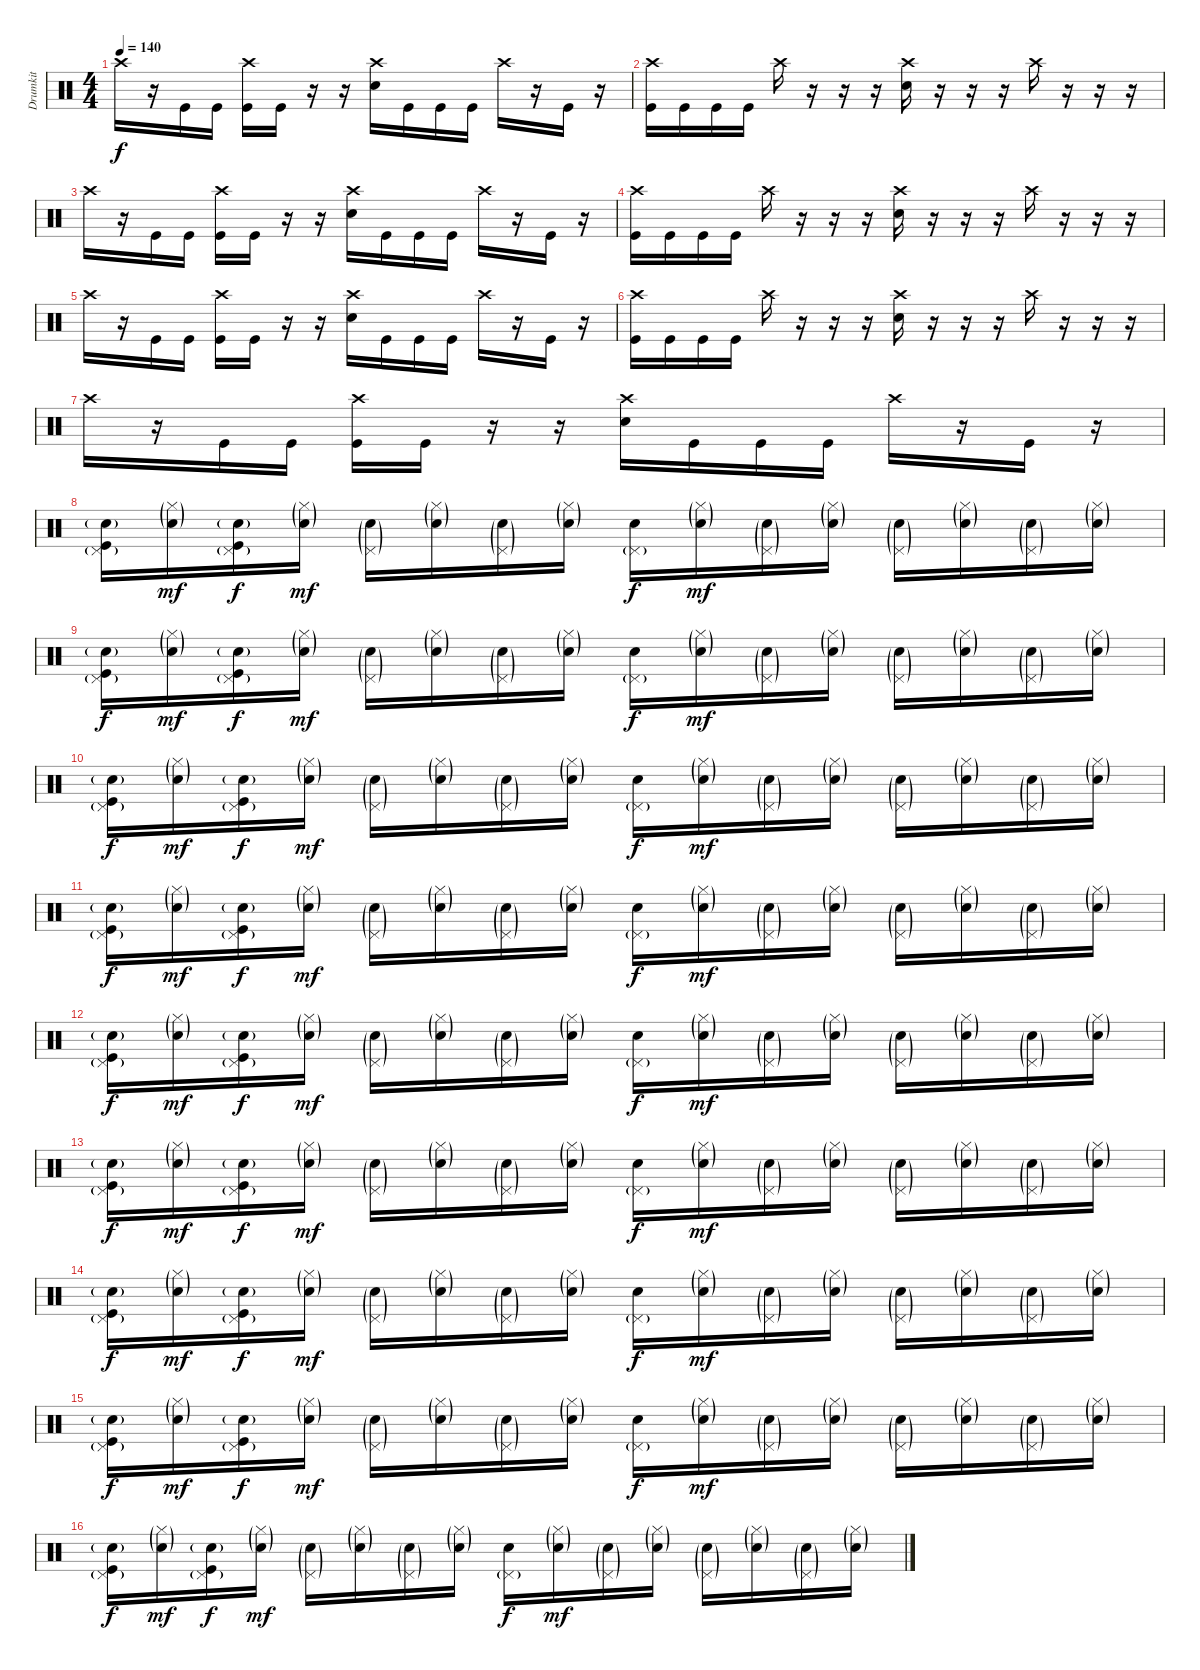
\track ("Drumkit" "Drumkit") {instrument percussion}
\staff {score}
\articulation defaults
\ts (4 4)
\tempo 140
\clef neutral
\ks c "Crash high (hit)".16{dy f}
r.16 "Kick (hit)".16 "Kick (hit)".16 ("Crash high (hit)" "Kick (hit)").16 "Kick (hit)".16 r.16 r.16 ("Crash high (hit)" "Snare (hit) 2").16 "Kick (hit)".16 "Kick (hit)".16 "Kick (hit)".16 "Crash high (hit)".16 r.16 "Kick (hit)".16 r.16 |
("Crash high (hit)" "Kick (hit)").16 "Kick (hit)".16 "Kick (hit)".16 "Kick (hit)".16 "Crash high (hit)".16 r.16 r.16 r.16 ("Crash high (hit)" "Snare (hit) 2").16 r.16 r.16 r.16 "Crash high (hit)".16 r.16 r.16 r.16 |
"Crash high (hit)".16 r.16 "Kick (hit)".16 "Kick (hit)".16 ("Crash high (hit)" "Kick (hit)").16 "Kick (hit)".16 r.16 r.16 ("Crash high (hit)" "Snare (hit) 2").16 "Kick (hit)".16 "Kick (hit)".16 "Kick (hit)".16 "Crash high (hit)".16 r.16 "Kick (hit)".16 r.16 |
("Crash high (hit)" "Kick (hit)").16 "Kick (hit)".16 "Kick (hit)".16 "Kick (hit)".16 "Crash high (hit)".16 r.16 r.16 r.16 ("Crash high (hit)" "Snare (hit) 2").16 r.16 r.16 r.16 "Crash high (hit)".16 r.16 r.16 r.16 |
"Crash high (hit)".16 r.16 "Kick (hit)".16 "Kick (hit)".16 ("Crash high (hit)" "Kick (hit)").16 "Kick (hit)".16 r.16 r.16 ("Crash high (hit)" "Snare (hit) 2").16 "Kick (hit)".16 "Kick (hit)".16 "Kick (hit)".16 "Crash high (hit)".16 r.16 "Kick (hit)".16 r.16 |
("Crash high (hit)" "Kick (hit)").16 "Kick (hit)".16 "Kick (hit)".16 "Kick (hit)".16 "Crash high (hit)".16 r.16 r.16 r.16 ("Crash high (hit)" "Snare (hit) 2").16 r.16 r.16 r.16 "Crash high (hit)".16 r.16 r.16 r.16 |
"Crash high (hit)".16 r.16 "Kick (hit)".16 "Kick (hit)".16 ("Crash high (hit)" "Kick (hit)").16 "Kick (hit)".16 r.16 r.16 ("Crash high (hit)" "Snare (hit) 2").16 "Kick (hit)".16 "Kick (hit)".16 "Kick (hit)".16 "Crash high (hit)".16 r.16 "Kick (hit)".16 r.16 |
("Pedal Hi-Hat (hit)"{g} "Snare (hit) 2"{g} "Kick (hit)").16 ("Hi-Hat (closed)"{g} "Snare (hit) 2"{g}).16{dy mf} ("Pedal Hi-Hat (hit)"{g} "Snare (hit) 2"{g} "Kick (hit)").16{dy f} ("Hi-Hat (closed)"{g} "Snare (hit) 2"{g}).16{dy mf} ("Pedal Hi-Hat (hit)"{g} "Snare (hit) 2"{g}).16 ("Hi-Hat (closed)"{g} "Snare (hit) 2"{g}).16 ("Pedal Hi-Hat (hit)"{g} "Snare (hit) 2"{g}).16 ("Hi-Hat (closed)"{g} "Snare (hit) 2"{g}).16 ("Pedal Hi-Hat (hit)"{g} "Snare (hit) 2").16{dy f} ("Hi-Hat (closed)"{g} "Snare (hit) 2"{g}).16{dy mf} ("Pedal Hi-Hat (hit)"{g} "Snare (hit) 2"{g}).16 ("Hi-Hat (closed)"{g} "Snare (hit) 2"{g}).16 ("Pedal Hi-Hat (hit)"{g} "Snare (hit) 2"{g}).16 ("Hi-Hat (closed)"{g} "Snare (hit) 2"{g}).16 ("Pedal Hi-Hat (hit)"{g} "Snare (hit) 2"{g}).16 ("Hi-Hat (closed)"{g} "Snare (hit) 2"{g}).16 |
("Pedal Hi-Hat (hit)"{g} "Snare (hit) 2"{g} "Kick (hit)").16{dy f} ("Hi-Hat (closed)"{g} "Snare (hit) 2"{g}).16{dy mf} ("Pedal Hi-Hat (hit)"{g} "Snare (hit) 2"{g} "Kick (hit)").16{dy f} ("Hi-Hat (closed)"{g} "Snare (hit) 2"{g}).16{dy mf} ("Pedal Hi-Hat (hit)"{g} "Snare (hit) 2"{g}).16 ("Hi-Hat (closed)"{g} "Snare (hit) 2"{g}).16 ("Pedal Hi-Hat (hit)"{g} "Snare (hit) 2"{g}).16 ("Hi-Hat (closed)"{g} "Snare (hit) 2"{g}).16 ("Pedal Hi-Hat (hit)"{g} "Snare (hit) 2").16{dy f} ("Hi-Hat (closed)"{g} "Snare (hit) 2"{g}).16{dy mf} ("Pedal Hi-Hat (hit)"{g} "Snare (hit) 2"{g}).16 ("Hi-Hat (closed)"{g} "Snare (hit) 2"{g}).16 ("Pedal Hi-Hat (hit)"{g} "Snare (hit) 2"{g}).16 ("Hi-Hat (closed)"{g} "Snare (hit) 2"{g}).16 ("Pedal Hi-Hat (hit)"{g} "Snare (hit) 2"{g}).16 ("Hi-Hat (closed)"{g} "Snare (hit) 2"{g}).16 |
("Pedal Hi-Hat (hit)"{g} "Snare (hit) 2"{g} "Kick (hit)").16{dy f} ("Hi-Hat (closed)"{g} "Snare (hit) 2"{g}).16{dy mf} ("Pedal Hi-Hat (hit)"{g} "Snare (hit) 2"{g} "Kick (hit)").16{dy f} ("Hi-Hat (closed)"{g} "Snare (hit) 2"{g}).16{dy mf} ("Pedal Hi-Hat (hit)"{g} "Snare (hit) 2"{g}).16 ("Hi-Hat (closed)"{g} "Snare (hit) 2"{g}).16 ("Pedal Hi-Hat (hit)"{g} "Snare (hit) 2"{g}).16 ("Hi-Hat (closed)"{g} "Snare (hit) 2"{g}).16 ("Pedal Hi-Hat (hit)"{g} "Snare (hit) 2").16{dy f} ("Hi-Hat (closed)"{g} "Snare (hit) 2"{g}).16{dy mf} ("Pedal Hi-Hat (hit)"{g} "Snare (hit) 2"{g}).16 ("Hi-Hat (closed)"{g} "Snare (hit) 2"{g}).16 ("Pedal Hi-Hat (hit)"{g} "Snare (hit) 2"{g}).16 ("Hi-Hat (closed)"{g} "Snare (hit) 2"{g}).16 ("Pedal Hi-Hat (hit)"{g} "Snare (hit) 2"{g}).16 ("Hi-Hat (closed)"{g} "Snare (hit) 2"{g}).16 |
("Pedal Hi-Hat (hit)"{g} "Snare (hit) 2"{g} "Kick (hit)").16{dy f} ("Hi-Hat (closed)"{g} "Snare (hit) 2"{g}).16{dy mf} ("Pedal Hi-Hat (hit)"{g} "Snare (hit) 2"{g} "Kick (hit)").16{dy f} ("Hi-Hat (closed)"{g} "Snare (hit) 2"{g}).16{dy mf} ("Pedal Hi-Hat (hit)"{g} "Snare (hit) 2"{g}).16 ("Hi-Hat (closed)"{g} "Snare (hit) 2"{g}).16 ("Pedal Hi-Hat (hit)"{g} "Snare (hit) 2"{g}).16 ("Hi-Hat (closed)"{g} "Snare (hit) 2"{g}).16 ("Pedal Hi-Hat (hit)"{g} "Snare (hit) 2").16{dy f} ("Hi-Hat (closed)"{g} "Snare (hit) 2"{g}).16{dy mf} ("Pedal Hi-Hat (hit)"{g} "Snare (hit) 2"{g}).16 ("Hi-Hat (closed)"{g} "Snare (hit) 2"{g}).16 ("Pedal Hi-Hat (hit)"{g} "Snare (hit) 2"{g}).16 ("Hi-Hat (closed)"{g} "Snare (hit) 2"{g}).16 ("Pedal Hi-Hat (hit)"{g} "Snare (hit) 2"{g}).16 ("Hi-Hat (closed)"{g} "Snare (hit) 2"{g}).16 |
("Pedal Hi-Hat (hit)"{g} "Snare (hit) 2"{g} "Kick (hit)").16{dy f} ("Hi-Hat (closed)"{g} "Snare (hit) 2"{g}).16{dy mf} ("Pedal Hi-Hat (hit)"{g} "Snare (hit) 2"{g} "Kick (hit)").16{dy f} ("Hi-Hat (closed)"{g} "Snare (hit) 2"{g}).16{dy mf} ("Pedal Hi-Hat (hit)"{g} "Snare (hit) 2"{g}).16 ("Hi-Hat (closed)"{g} "Snare (hit) 2"{g}).16 ("Pedal Hi-Hat (hit)"{g} "Snare (hit) 2"{g}).16 ("Hi-Hat (closed)"{g} "Snare (hit) 2"{g}).16 ("Pedal Hi-Hat (hit)"{g} "Snare (hit) 2").16{dy f} ("Hi-Hat (closed)"{g} "Snare (hit) 2"{g}).16{dy mf} ("Pedal Hi-Hat (hit)"{g} "Snare (hit) 2"{g}).16 ("Hi-Hat (closed)"{g} "Snare (hit) 2"{g}).16 ("Pedal Hi-Hat (hit)"{g} "Snare (hit) 2"{g}).16 ("Hi-Hat (closed)"{g} "Snare (hit) 2"{g}).16 ("Pedal Hi-Hat (hit)"{g} "Snare (hit) 2"{g}).16 ("Hi-Hat (closed)"{g} "Snare (hit) 2"{g}).16 |
("Pedal Hi-Hat (hit)"{g} "Snare (hit) 2"{g} "Kick (hit)").16{dy f} ("Hi-Hat (closed)"{g} "Snare (hit) 2"{g}).16{dy mf} ("Pedal Hi-Hat (hit)"{g} "Snare (hit) 2"{g} "Kick (hit)").16{dy f} ("Hi-Hat (closed)"{g} "Snare (hit) 2"{g}).16{dy mf} ("Pedal Hi-Hat (hit)"{g} "Snare (hit) 2"{g}).16 ("Hi-Hat (closed)"{g} "Snare (hit) 2"{g}).16 ("Pedal Hi-Hat (hit)"{g} "Snare (hit) 2"{g}).16 ("Hi-Hat (closed)"{g} "Snare (hit) 2"{g}).16 ("Pedal Hi-Hat (hit)"{g} "Snare (hit) 2").16{dy f} ("Hi-Hat (closed)"{g} "Snare (hit) 2"{g}).16{dy mf} ("Pedal Hi-Hat (hit)"{g} "Snare (hit) 2"{g}).16 ("Hi-Hat (closed)"{g} "Snare (hit) 2"{g}).16 ("Pedal Hi-Hat (hit)"{g} "Snare (hit) 2"{g}).16 ("Hi-Hat (closed)"{g} "Snare (hit) 2"{g}).16 ("Pedal Hi-Hat (hit)"{g} "Snare (hit) 2"{g}).16 ("Hi-Hat (closed)"{g} "Snare (hit) 2"{g}).16 |
("Pedal Hi-Hat (hit)"{g} "Snare (hit) 2"{g} "Kick (hit)").16{dy f} ("Hi-Hat (closed)"{g} "Snare (hit) 2"{g}).16{dy mf} ("Pedal Hi-Hat (hit)"{g} "Snare (hit) 2"{g} "Kick (hit)").16{dy f} ("Hi-Hat (closed)"{g} "Snare (hit) 2"{g}).16{dy mf} ("Pedal Hi-Hat (hit)"{g} "Snare (hit) 2"{g}).16 ("Hi-Hat (closed)"{g} "Snare (hit) 2"{g}).16 ("Pedal Hi-Hat (hit)"{g} "Snare (hit) 2"{g}).16 ("Hi-Hat (closed)"{g} "Snare (hit) 2"{g}).16 ("Pedal Hi-Hat (hit)"{g} "Snare (hit) 2").16{dy f} ("Hi-Hat (closed)"{g} "Snare (hit) 2"{g}).16{dy mf} ("Pedal Hi-Hat (hit)"{g} "Snare (hit) 2"{g}).16 ("Hi-Hat (closed)"{g} "Snare (hit) 2"{g}).16 ("Pedal Hi-Hat (hit)"{g} "Snare (hit) 2"{g}).16 ("Hi-Hat (closed)"{g} "Snare (hit) 2"{g}).16 ("Pedal Hi-Hat (hit)"{g} "Snare (hit) 2"{g}).16 ("Hi-Hat (closed)"{g} "Snare (hit) 2"{g}).16 |
("Pedal Hi-Hat (hit)"{g} "Snare (hit) 2"{g} "Kick (hit)").16{dy f} ("Hi-Hat (closed)"{g} "Snare (hit) 2"{g}).16{dy mf} ("Pedal Hi-Hat (hit)"{g} "Snare (hit) 2"{g} "Kick (hit)").16{dy f} ("Hi-Hat (closed)"{g} "Snare (hit) 2"{g}).16{dy mf} ("Pedal Hi-Hat (hit)"{g} "Snare (hit) 2"{g}).16 ("Hi-Hat (closed)"{g} "Snare (hit) 2"{g}).16 ("Pedal Hi-Hat (hit)"{g} "Snare (hit) 2"{g}).16 ("Hi-Hat (closed)"{g} "Snare (hit) 2"{g}).16 ("Pedal Hi-Hat (hit)"{g} "Snare (hit) 2").16{dy f} ("Hi-Hat (closed)"{g} "Snare (hit) 2"{g}).16{dy mf} ("Pedal Hi-Hat (hit)"{g} "Snare (hit) 2"{g}).16 ("Hi-Hat (closed)"{g} "Snare (hit) 2"{g}).16 ("Pedal Hi-Hat (hit)"{g} "Snare (hit) 2"{g}).16 ("Hi-Hat (closed)"{g} "Snare (hit) 2"{g}).16 ("Pedal Hi-Hat (hit)"{g} "Snare (hit) 2"{g}).16 ("Hi-Hat (closed)"{g} "Snare (hit) 2"{g}).16 |
("Pedal Hi-Hat (hit)"{g} "Snare (hit) 2"{g} "Kick (hit)").16{dy f} ("Hi-Hat (closed)"{g} "Snare (hit) 2"{g}).16{dy mf} ("Pedal Hi-Hat (hit)"{g} "Snare (hit) 2"{g} "Kick (hit)").16{dy f} ("Hi-Hat (closed)"{g} "Snare (hit) 2"{g}).16{dy mf} ("Pedal Hi-Hat (hit)"{g} "Snare (hit) 2"{g}).16 ("Hi-Hat (closed)"{g} "Snare (hit) 2"{g}).16 ("Pedal Hi-Hat (hit)"{g} "Snare (hit) 2"{g}).16 ("Hi-Hat (closed)"{g} "Snare (hit) 2"{g}).16 ("Pedal Hi-Hat (hit)"{g} "Snare (hit) 2").16{dy f} ("Hi-Hat (closed)"{g} "Snare (hit) 2"{g}).16{dy mf} ("Pedal Hi-Hat (hit)"{g} "Snare (hit) 2"{g}).16 ("Hi-Hat (closed)"{g} "Snare (hit) 2"{g}).16 ("Pedal Hi-Hat (hit)"{g} "Snare (hit) 2"{g}).16 ("Hi-Hat (closed)"{g} "Snare (hit) 2"{g}).16 ("Pedal Hi-Hat (hit)"{g} "Snare (hit) 2"{g}).16 ("Hi-Hat (closed)"{g} "Snare (hit) 2"{g}).16
